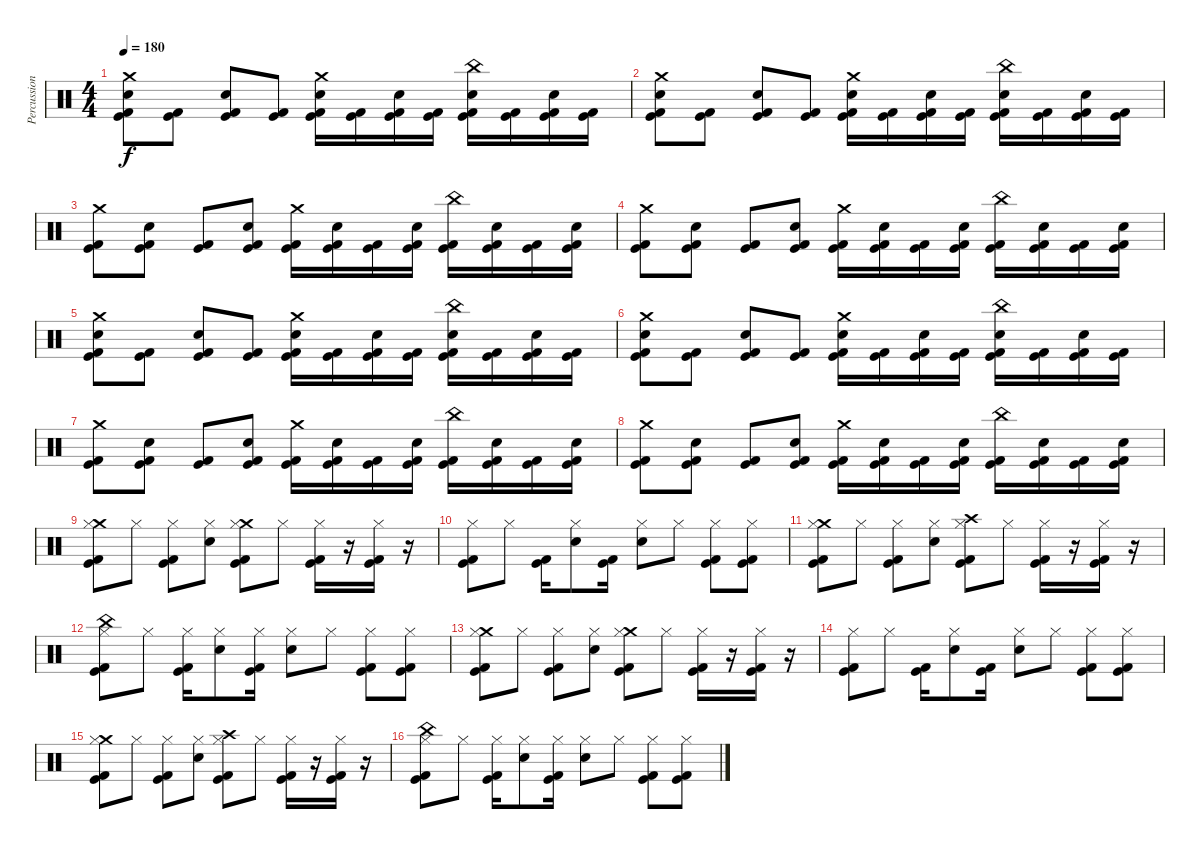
\track ("Percussion" "Percussion") {instrument percussion}
\staff {score}
\articulation defaults
\ts (4 4)
\tempo 180
\clef neutral
\ks c
("Crash medium (hit)" "Electric Snare (hit)" "Kick (hit)" "Kick (hit) 2").8{dy f} ("Kick (hit)" "Kick (hit) 2").8 ("Electric Snare (hit)" "Kick (hit)" "Kick (hit) 2").8 ("Kick (hit)" "Kick (hit) 2").8 ("Crash medium (hit)" "Electric Snare (hit)" "Kick (hit)" "Kick (hit) 2").16 ("Kick (hit)" "Kick (hit) 2").16 ("Electric Snare (hit)" "Kick (hit)" "Kick (hit) 2").16 ("Kick (hit)" "Kick (hit) 2").16 ("China (hit)" "Electric Snare (hit)" "Kick (hit)" "Kick (hit) 2").16 ("Kick (hit)" "Kick (hit) 2").16 ("Electric Snare (hit)" "Kick (hit)" "Kick (hit) 2").16 ("Kick (hit)" "Kick (hit) 2").16 |
("Crash medium (hit)" "Electric Snare (hit)" "Kick (hit)" "Kick (hit) 2").8 ("Kick (hit)" "Kick (hit) 2").8 ("Electric Snare (hit)" "Kick (hit)" "Kick (hit) 2").8 ("Kick (hit)" "Kick (hit) 2").8 ("Crash medium (hit)" "Electric Snare (hit)" "Kick (hit)" "Kick (hit) 2").16 ("Kick (hit)" "Kick (hit) 2").16 ("Electric Snare (hit)" "Kick (hit)" "Kick (hit) 2").16 ("Kick (hit)" "Kick (hit) 2").16 ("China (hit)" "Electric Snare (hit)" "Kick (hit)" "Kick (hit) 2").16 ("Kick (hit)" "Kick (hit) 2").16 ("Electric Snare (hit)" "Kick (hit)" "Kick (hit) 2").16 ("Kick (hit)" "Kick (hit) 2").16 |
("Crash medium (hit)" "Kick (hit)" "Kick (hit) 2").8 ("Electric Snare (hit)" "Kick (hit)" "Kick (hit) 2").8 ("Kick (hit)" "Kick (hit) 2").8 ("Electric Snare (hit)" "Kick (hit)" "Kick (hit) 2").8 ("Crash medium (hit)" "Kick (hit)" "Kick (hit) 2").16 ("Electric Snare (hit)" "Kick (hit)" "Kick (hit) 2").16 ("Kick (hit)" "Kick (hit) 2").16 ("Electric Snare (hit)" "Kick (hit)" "Kick (hit) 2").16 ("China (hit)" "Kick (hit)" "Kick (hit) 2").16 ("Electric Snare (hit)" "Kick (hit)" "Kick (hit) 2").16 ("Kick (hit)" "Kick (hit) 2").16 ("Electric Snare (hit)" "Kick (hit)" "Kick (hit) 2").16 |
("Crash medium (hit)" "Kick (hit)" "Kick (hit) 2").8 ("Electric Snare (hit)" "Kick (hit)" "Kick (hit) 2").8 ("Kick (hit)" "Kick (hit) 2").8 ("Electric Snare (hit)" "Kick (hit)" "Kick (hit) 2").8 ("Crash medium (hit)" "Kick (hit)" "Kick (hit) 2").16 ("Electric Snare (hit)" "Kick (hit)" "Kick (hit) 2").16 ("Kick (hit)" "Kick (hit) 2").16 ("Electric Snare (hit)" "Kick (hit)" "Kick (hit) 2").16 ("China (hit)" "Kick (hit)" "Kick (hit) 2").16 ("Electric Snare (hit)" "Kick (hit)" "Kick (hit) 2").16 ("Kick (hit)" "Kick (hit) 2").16 ("Electric Snare (hit)" "Kick (hit)" "Kick (hit) 2").16 |
("Crash medium (hit)" "Electric Snare (hit)" "Kick (hit)" "Kick (hit) 2").8 ("Kick (hit)" "Kick (hit) 2").8 ("Electric Snare (hit)" "Kick (hit)" "Kick (hit) 2").8 ("Kick (hit)" "Kick (hit) 2").8 ("Crash medium (hit)" "Electric Snare (hit)" "Kick (hit)" "Kick (hit) 2").16 ("Kick (hit)" "Kick (hit) 2").16 ("Electric Snare (hit)" "Kick (hit)" "Kick (hit) 2").16 ("Kick (hit)" "Kick (hit) 2").16 ("China (hit)" "Electric Snare (hit)" "Kick (hit)" "Kick (hit) 2").16 ("Kick (hit)" "Kick (hit) 2").16 ("Electric Snare (hit)" "Kick (hit)" "Kick (hit) 2").16 ("Kick (hit)" "Kick (hit) 2").16 |
("Crash medium (hit)" "Electric Snare (hit)" "Kick (hit)" "Kick (hit) 2").8 ("Kick (hit)" "Kick (hit) 2").8 ("Electric Snare (hit)" "Kick (hit)" "Kick (hit) 2").8 ("Kick (hit)" "Kick (hit) 2").8 ("Crash medium (hit)" "Electric Snare (hit)" "Kick (hit)" "Kick (hit) 2").16 ("Kick (hit)" "Kick (hit) 2").16 ("Electric Snare (hit)" "Kick (hit)" "Kick (hit) 2").16 ("Kick (hit)" "Kick (hit) 2").16 ("China (hit)" "Electric Snare (hit)" "Kick (hit)" "Kick (hit) 2").16 ("Kick (hit)" "Kick (hit) 2").16 ("Electric Snare (hit)" "Kick (hit)" "Kick (hit) 2").16 ("Kick (hit)" "Kick (hit) 2").16 |
("Crash medium (hit)" "Kick (hit)" "Kick (hit) 2").8 ("Electric Snare (hit)" "Kick (hit)" "Kick (hit) 2").8 ("Kick (hit)" "Kick (hit) 2").8 ("Electric Snare (hit)" "Kick (hit)" "Kick (hit) 2").8 ("Crash medium (hit)" "Kick (hit)" "Kick (hit) 2").16 ("Electric Snare (hit)" "Kick (hit)" "Kick (hit) 2").16 ("Kick (hit)" "Kick (hit) 2").16 ("Electric Snare (hit)" "Kick (hit)" "Kick (hit) 2").16 ("China (hit)" "Kick (hit)" "Kick (hit) 2").16 ("Electric Snare (hit)" "Kick (hit)" "Kick (hit) 2").16 ("Kick (hit)" "Kick (hit) 2").16 ("Electric Snare (hit)" "Kick (hit)" "Kick (hit) 2").16 |
("Crash medium (hit)" "Kick (hit)" "Kick (hit) 2").8 ("Electric Snare (hit)" "Kick (hit)" "Kick (hit) 2").8 ("Kick (hit)" "Kick (hit) 2").8 ("Electric Snare (hit)" "Kick (hit)" "Kick (hit) 2").8 ("Crash medium (hit)" "Kick (hit)" "Kick (hit) 2").16 ("Electric Snare (hit)" "Kick (hit)" "Kick (hit) 2").16 ("Kick (hit)" "Kick (hit) 2").16 ("Electric Snare (hit)" "Kick (hit)" "Kick (hit) 2").16 ("China (hit)" "Kick (hit)" "Kick (hit) 2").16 ("Electric Snare (hit)" "Kick (hit)" "Kick (hit) 2").16 ("Kick (hit)" "Kick (hit) 2").16 ("Electric Snare (hit)" "Kick (hit)" "Kick (hit) 2").16 |
("Crash medium (hit)" "Hi-Hat (closed)" "Kick (hit)" "Kick (hit) 2").8 "Hi-Hat (closed)".8 ("Hi-Hat (closed)" "Kick (hit)" "Kick (hit) 2").8 ("Hi-Hat (closed)" "Electric Snare (hit)").8 ("Crash medium (hit)" "Hi-Hat (closed)" "Kick (hit)" "Kick (hit) 2").8 "Hi-Hat (closed)".8 ("Hi-Hat (closed)" "Kick (hit)" "Kick (hit) 2").16 r.16 ("Hi-Hat (closed)" "Kick (hit)" "Kick (hit) 2").16 r.16 |
("Hi-Hat (closed)" "Kick (hit)" "Kick (hit) 2").8 "Hi-Hat (closed)".8 ("Kick (hit)" "Kick (hit) 2").16 ("Hi-Hat (closed)" "Electric Snare (hit)").8 ("Kick (hit)" "Kick (hit) 2").16 ("Hi-Hat (closed)" "Electric Snare (hit)").8 "Hi-Hat (closed)".8 ("Hi-Hat (closed)" "Kick (hit)" "Kick (hit) 2").8 ("Hi-Hat (closed)" "Kick (hit)" "Kick (hit) 2").8 |
("Crash medium (hit)" "Hi-Hat (closed)" "Kick (hit)" "Kick (hit) 2").8 "Hi-Hat (closed)".8 ("Hi-Hat (closed)" "Kick (hit)" "Kick (hit) 2").8 ("Hi-Hat (closed)" "Electric Snare (hit)").8 ("Crash high (hit)" "Hi-Hat (closed)" "Kick (hit)" "Kick (hit) 2").8 "Hi-Hat (closed)".8 ("Hi-Hat (closed)" "Kick (hit)" "Kick (hit) 2").16 r.16 ("Hi-Hat (closed)" "Kick (hit)" "Kick (hit) 2").16 r.16 |
("China (hit)" "Hi-Hat (closed)" "Kick (hit)" "Kick (hit) 2").8 "Hi-Hat (closed)".8 ("Hi-Hat (closed)" "Kick (hit)" "Kick (hit) 2").16 ("Hi-Hat (closed)" "Electric Snare (hit)").8 ("Hi-Hat (closed)" "Kick (hit)" "Kick (hit) 2").16 ("Hi-Hat (closed)" "Electric Snare (hit)").8 "Hi-Hat (closed)".8 ("Hi-Hat (closed)" "Kick (hit)" "Kick (hit) 2").8 ("Hi-Hat (closed)" "Kick (hit)" "Kick (hit) 2").8 |
("Crash medium (hit)" "Hi-Hat (closed)" "Kick (hit)" "Kick (hit) 2").8 "Hi-Hat (closed)".8 ("Hi-Hat (closed)" "Kick (hit)" "Kick (hit) 2").8 ("Hi-Hat (closed)" "Electric Snare (hit)").8 ("Crash medium (hit)" "Hi-Hat (closed)" "Kick (hit)" "Kick (hit) 2").8 "Hi-Hat (closed)".8 ("Hi-Hat (closed)" "Kick (hit)" "Kick (hit) 2").16 r.16 ("Hi-Hat (closed)" "Kick (hit)" "Kick (hit) 2").16 r.16 |
("Hi-Hat (closed)" "Kick (hit)" "Kick (hit) 2").8 "Hi-Hat (closed)".8 ("Kick (hit)" "Kick (hit) 2").16 ("Hi-Hat (closed)" "Electric Snare (hit)").8 ("Kick (hit)" "Kick (hit) 2").16 ("Hi-Hat (closed)" "Electric Snare (hit)").8 "Hi-Hat (closed)".8 ("Hi-Hat (closed)" "Kick (hit)" "Kick (hit) 2").8 ("Hi-Hat (closed)" "Kick (hit)" "Kick (hit) 2").8 |
("Crash medium (hit)" "Hi-Hat (closed)" "Kick (hit)" "Kick (hit) 2").8 "Hi-Hat (closed)".8 ("Hi-Hat (closed)" "Kick (hit)" "Kick (hit) 2").8 ("Hi-Hat (closed)" "Electric Snare (hit)").8 ("Crash high (hit)" "Hi-Hat (closed)" "Kick (hit)" "Kick (hit) 2").8 "Hi-Hat (closed)".8 ("Hi-Hat (closed)" "Kick (hit)" "Kick (hit) 2").16 r.16 ("Hi-Hat (closed)" "Kick (hit)" "Kick (hit) 2").16 r.16 |
("China (hit)" "Hi-Hat (closed)" "Kick (hit)" "Kick (hit) 2").8 "Hi-Hat (closed)".8 ("Hi-Hat (closed)" "Kick (hit)" "Kick (hit) 2").16 ("Hi-Hat (closed)" "Electric Snare (hit)").8 ("Hi-Hat (closed)" "Kick (hit)" "Kick (hit) 2").16 ("Hi-Hat (closed)" "Electric Snare (hit)").8 "Hi-Hat (closed)".8 ("Hi-Hat (closed)" "Kick (hit)" "Kick (hit) 2").8 ("Hi-Hat (closed)" "Kick (hit)" "Kick (hit) 2").8
